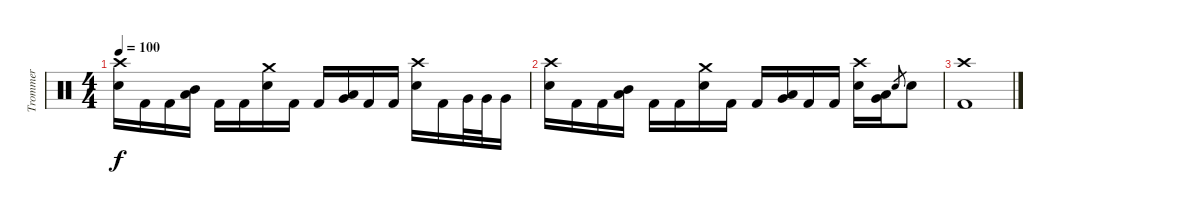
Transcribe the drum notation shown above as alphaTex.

\track ("Trommer" "Trommer") {instrument percussion}
\staff {score}
\articulation defaults
\ts (4 4)
\tempo 100
\clef neutral
\ks c
("Crash high (hit)" "Snare (hit) 2").16{dy f} "Kick (hit) 2".16 "Kick (hit) 2".16 ("Mid Tom (hit)" "Low Tom (hit)").16 "Kick (hit) 2".16 "Kick (hit) 2".16 ("Crash medium (hit)" "Snare (hit) 2").16 "Kick (hit) 2".16 "Kick (hit) 2".16 ("Low Tom (hit)" "Very Low Tom (hit)").16 "Kick (hit) 2".16 "Kick (hit) 2".16 ("Crash high (hit)" "Snare (hit) 2").16 "Kick (hit) 2".16 "Very Low Tom (hit)".32 "Very Low Tom (hit)".32 "Very Low Tom (hit)".16 |
("Crash high (hit)" "Snare (hit) 2").16 "Kick (hit) 2".16 "Kick (hit) 2".16 ("Mid Tom (hit)" "Low Tom (hit)").16 "Kick (hit) 2".16 "Kick (hit) 2".16 ("Crash medium (hit)" "Snare (hit) 2").16 "Kick (hit) 2".16 "Kick (hit) 2".16 ("Low Tom (hit)" "Very Low Tom (hit)").16 "Kick (hit) 2".16 "Kick (hit) 2".16 ("Crash high (hit)" "Snare (hit) 2").16 ("Low Tom (hit)" "Very Low Tom (hit)").16 "Snare (hit) 2".8{gr} "Snare (hit) 2".8 |
("Crash high (hit)" "Kick (hit) 2").1
